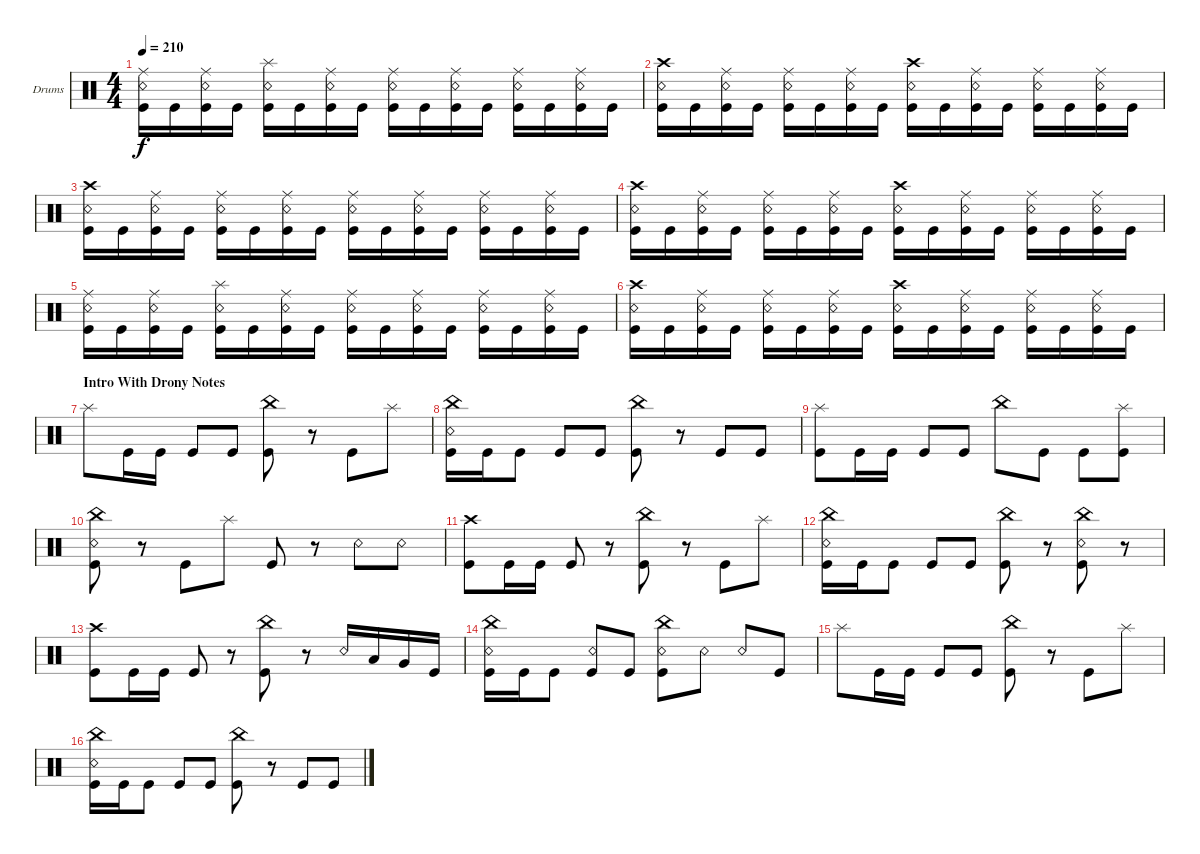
\defaultSystemsLayout 4
\bracketExtendMode groupsimilarinstruments
\firstSystemTrackNameOrientation horizontal
\otherSystemsTrackNameOrientation horizontal
\track ("Drums" "Drums") {instrument percussion}
\staff {score}
\articulation defaults
\ts (4 4)
\tempo 210
\clef neutral
\ks c
("Kick (hit)" "Snare (rim shot)" "Ride (middle)").16{dy f} "Kick (hit)".16 ("Kick (hit)" "Snare (rim shot)" "Ride (middle)").16 "Kick (hit)".16 ("Kick (hit)" "Snare (rim shot)" "Splash (hit)").16 "Kick (hit)".16 ("Kick (hit)" "Snare (rim shot)" "Ride (middle)").16 "Kick (hit)".16 ("Kick (hit)" "Snare (rim shot)" "Ride (middle)").16 "Kick (hit)".16 ("Kick (hit)" "Snare (rim shot)" "Ride (middle)").16 "Kick (hit)".16 ("Kick (hit)" "Snare (rim shot)" "Ride (middle)").16 "Kick (hit)".16 ("Kick (hit)" "Snare (rim shot)" "Ride (middle)").16 "Kick (hit)".16 |
("Kick (hit)" "Snare (rim shot)" "Crash high (hit)").16 "Kick (hit)".16 ("Kick (hit)" "Snare (rim shot)" "Ride (middle)").16 "Kick (hit)".16 ("Kick (hit)" "Snare (rim shot)" "Ride (middle)").16 "Kick (hit)".16 ("Kick (hit)" "Snare (rim shot)" "Ride (middle)").16 "Kick (hit)".16 ("Kick (hit)" "Snare (rim shot)" "Crash high (hit)").16 "Kick (hit)".16 ("Kick (hit)" "Snare (rim shot)" "Ride (middle)").16 "Kick (hit)".16 ("Kick (hit)" "Snare (rim shot)" "Ride (middle)").16 "Kick (hit)".16 ("Kick (hit)" "Snare (rim shot)" "Ride (middle)").16 "Kick (hit)".16 |
("Kick (hit)" "Snare (rim shot)" "Crash high (hit)").16 "Kick (hit)".16 ("Kick (hit)" "Snare (rim shot)" "Ride (middle)").16 "Kick (hit)".16 ("Kick (hit)" "Snare (rim shot)" "Ride (middle)").16 "Kick (hit)".16 ("Kick (hit)" "Snare (rim shot)" "Ride (middle)").16 "Kick (hit)".16 ("Kick (hit)" "Snare (rim shot)" "Ride (middle)").16 "Kick (hit)".16 ("Kick (hit)" "Snare (rim shot)" "Ride (middle)").16 "Kick (hit)".16 ("Kick (hit)" "Snare (rim shot)" "Ride (middle)").16 "Kick (hit)".16 ("Kick (hit)" "Snare (rim shot)" "Ride (middle)").16 "Kick (hit)".16 |
("Kick (hit)" "Snare (rim shot)" "Crash high (hit)").16 "Kick (hit)".16 ("Kick (hit)" "Snare (rim shot)" "Ride (middle)").16 "Kick (hit)".16 ("Kick (hit)" "Snare (rim shot)" "Ride (middle)").16 "Kick (hit)".16 ("Kick (hit)" "Snare (rim shot)" "Ride (middle)").16 "Kick (hit)".16 ("Kick (hit)" "Snare (rim shot)" "Crash high (hit)").16 "Kick (hit)".16 ("Kick (hit)" "Snare (rim shot)" "Ride (middle)").16 "Kick (hit)".16 ("Kick (hit)" "Snare (rim shot)" "Ride (middle)").16 "Kick (hit)".16 ("Kick (hit)" "Snare (rim shot)" "Ride (middle)").16 "Kick (hit)".16 |
("Kick (hit)" "Snare (rim shot)" "Ride (middle)").16 "Kick (hit)".16 ("Kick (hit)" "Snare (rim shot)" "Ride (middle)").16 "Kick (hit)".16 ("Kick (hit)" "Snare (rim shot)" "Splash (hit)").16 "Kick (hit)".16 ("Kick (hit)" "Snare (rim shot)" "Ride (middle)").16 "Kick (hit)".16 ("Kick (hit)" "Snare (rim shot)" "Ride (middle)").16 "Kick (hit)".16 ("Kick (hit)" "Snare (rim shot)" "Ride (middle)").16 "Kick (hit)".16 ("Kick (hit)" "Snare (rim shot)" "Ride (middle)").16 "Kick (hit)".16 ("Kick (hit)" "Snare (rim shot)" "Ride (middle)").16 "Kick (hit)".16 |
("Kick (hit)" "Snare (rim shot)" "Crash high (hit)").16 "Kick (hit)".16 ("Kick (hit)" "Snare (rim shot)" "Ride (middle)").16 "Kick (hit)".16 ("Kick (hit)" "Snare (rim shot)" "Ride (middle)").16 "Kick (hit)".16 ("Kick (hit)" "Snare (rim shot)" "Ride (middle)").16 "Kick (hit)".16 ("Kick (hit)" "Snare (rim shot)" "Crash high (hit)").16 "Kick (hit)".16 ("Kick (hit)" "Snare (rim shot)" "Ride (middle)").16 "Kick (hit)".16 ("Kick (hit)" "Snare (rim shot)" "Ride (middle)").16 "Kick (hit)".16 ("Kick (hit)" "Snare (rim shot)" "Ride (middle)").16 "Kick (hit)".16 |
\section ("" "Intro With Drony Notes")
"Splash (hit)".8 "Kick (hit)".16 "Kick (hit)".16 "Kick (hit)".8 "Kick (hit)".8 ("Kick (hit)" "China (hit)").8 r.8 "Kick (hit)".8 "Splash (hit)".8 |
("Kick (hit)" "China (hit)" "Snare (rim shot)").16 "Kick (hit)".16 "Kick (hit)".8 "Kick (hit)".8 "Kick (hit)".8 ("Kick (hit)" "China (hit)").8 r.8 "Kick (hit)".8 "Kick (hit)".8 |
("Kick (hit)" "Splash (hit)").8 "Kick (hit)".16 "Kick (hit)".16 "Kick (hit)".8 "Kick (hit)".8 "China (hit)".8 "Kick (hit)".8 "Kick (hit)".8 ("Splash (hit)" "Kick (hit)").8 |
("Kick (hit)" "China (hit)" "Snare (rim shot)").8 r.8 "Kick (hit)".8 "Splash (hit)".8 "Kick (hit)".8 r.8 "Snare (rim shot)".8 "Snare (rim shot)".8 |
("Kick (hit)" "Crash high (hit)").8 "Kick (hit)".16 "Kick (hit)".16 "Kick (hit)".8 r.8 ("Kick (hit)" "China (hit)").8 r.8 "Kick (hit)".8 "Splash (hit)".8 |
("Kick (hit)" "China (hit)" "Snare (rim shot)").16 "Kick (hit)".16 "Kick (hit)".8 "Kick (hit)".8 "Kick (hit)".8 ("Kick (hit)" "China (hit)").8 r.8 ("Kick (hit)" "Snare (rim shot)" "China (hit)").8 r.8 |
("Kick (hit)" "Crash high (hit)").8 "Kick (hit)".16 "Kick (hit)".16 "Kick (hit)".8 r.8 ("Kick (hit)" "China (hit)").8 r.8 "Snare (rim shot)".16 "Low Tom (hit)".16 "Very Low Tom (hit)".16 "Kick (hit)".16 |
("Kick (hit)" "China (hit)" "Snare (rim shot)").16 "Kick (hit)".16 "Kick (hit)".8 ("Kick (hit)" "Snare (rim shot)").8 "Kick (hit)".8 ("Kick (hit)" "China (hit)" "Snare (rim shot)").8 "Snare (rim shot)".8 "Snare (rim shot)".8 "Kick (hit)".8 |
"Splash (hit)".8 "Kick (hit)".16 "Kick (hit)".16 "Kick (hit)".8 "Kick (hit)".8 ("Kick (hit)" "China (hit)").8 r.8 "Kick (hit)".8 "Splash (hit)".8 |
("Kick (hit)" "China (hit)" "Snare (rim shot)").16 "Kick (hit)".16 "Kick (hit)".8 "Kick (hit)".8 "Kick (hit)".8 ("Kick (hit)" "China (hit)").8 r.8 "Kick (hit)".8 "Kick (hit)".8
